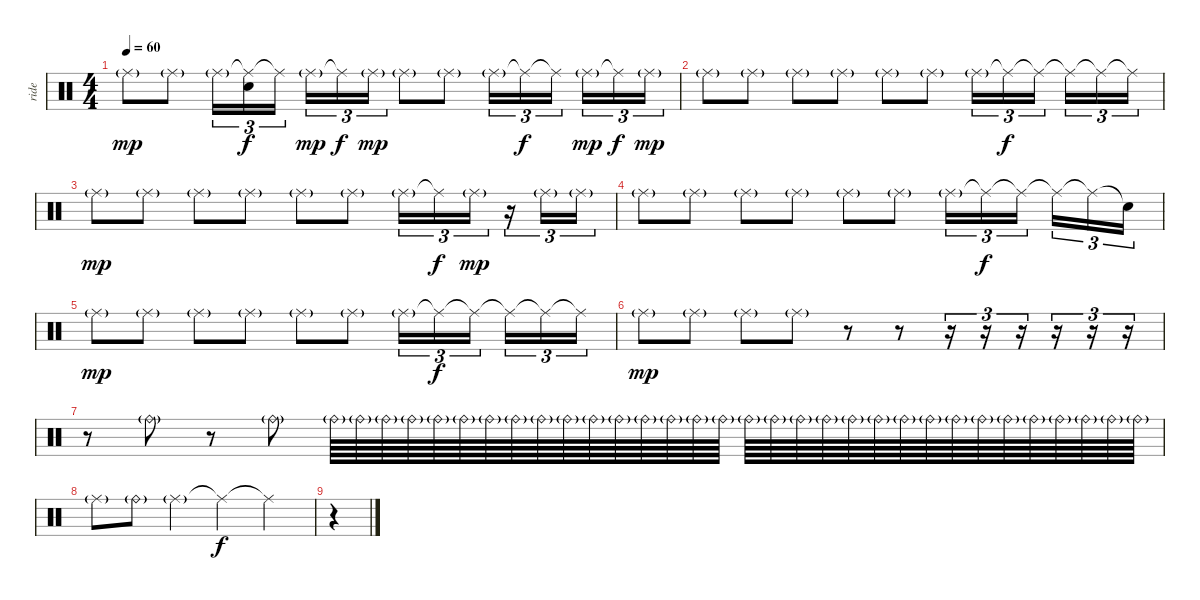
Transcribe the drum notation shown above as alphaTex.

\track ("ride" "ride") {instrument percussion}
\staff {score}
\articulation defaults
\ts (4 4)
\tempo 60
\clef neutral
\ks c "Ride (middle)"{g}.8{dy mp} "Ride (middle)"{g}.8 "Ride (middle)"{g}.16{tu (3 2)}
("Ride (middle)"{t} "Snare (hit)").16{tu (3 2) dy f} "Ride (middle)"{t}.16{tu (3 2)} "Ride (middle)"{g}.16{tu (3 2) dy mp} "Ride (middle)"{t}.16{tu (3 2) dy f} "Ride (middle)"{g}.16{tu (3 2) dy mp} "Ride (middle)"{g}.8 "Ride (middle)"{g}.8 "Ride (middle)"{g}.16{tu (3 2)} "Ride (middle)"{t}.16{tu (3 2) dy f} "Ride (middle)"{t}.16{tu (3 2)} "Ride (middle)"{g}.16{tu (3 2) dy mp} "Ride (middle)"{t}.16{tu (3 2) dy f} "Ride (middle)"{g}.16{tu (3 2) dy mp} |
"Ride (middle)"{g}.8 "Ride (middle)"{g}.8 "Ride (middle)"{g}.8 "Ride (middle)"{g}.8 "Ride (middle)"{g}.8 "Ride (middle)"{g}.8 "Ride (middle)"{g}.16{tu (3 2)} "Ride (middle)"{t}.16{tu (3 2) dy f} "Ride (middle)"{t}.16{tu (3 2)} "Ride (middle)"{t}.16{tu (3 2)} "Ride (middle)"{t}.16{tu (3 2)} "Ride (middle)"{t}.16{tu (3 2)} |
"Ride (middle)"{g}.8{dy mp} "Ride (middle)"{g}.8 "Ride (middle)"{g}.8 "Ride (middle)"{g}.8 "Ride (middle)"{g}.8 "Ride (middle)"{g}.8 "Ride (middle)"{g}.16{tu (3 2)} "Ride (middle)"{t}.16{tu (3 2) dy f} "Ride (middle)"{g}.16{tu (3 2) dy mp} r.16{tu (3 2)} "Ride (middle)"{g}.16{tu (3 2)} "Ride (middle)"{g}.16{tu (3 2)} |
"Ride (middle)"{g}.8 "Ride (middle)"{g}.8 "Ride (middle)"{g}.8 "Ride (middle)"{g}.8 "Ride (middle)"{g}.8 "Ride (middle)"{g}.8 "Ride (middle)"{g}.16{tu (3 2)} "Ride (middle)"{t}.16{tu (3 2) dy f} "Ride (middle)"{t}.16{tu (3 2)} "Ride (middle)"{t}.16{tu (3 2)} "Ride (middle)"{t}.16{tu (3 2)} "Snare (hit)"{t}.16{tu (3 2)} |
"Ride (middle)"{g}.8{dy mp} "Ride (middle)"{g}.8 "Ride (middle)"{g}.8 "Ride (middle)"{g}.8 "Ride (middle)"{g}.8 "Ride (middle)"{g}.8 "Ride (middle)"{g}.16{tu (3 2)} "Ride (middle)"{t}.16{tu (3 2) dy f} "Ride (middle)"{t}.16{tu (3 2)} "Ride (middle)"{t}.16{tu (3 2)} "Ride (middle)"{t}.16{tu (3 2)} "Ride (middle)"{t}.16{tu (3 2)} |
"Ride (middle)"{g}.8{dy mp} "Ride (middle)"{g}.8 "Ride (middle)"{g}.8 "Ride (middle)"{g}.8 r.8 r.8 r.16{tu (3 2)} r.16{tu (3 2)} r.16{tu (3 2)} r.16{tu (3 2)} r.16{tu (3 2)} r.16{tu (3 2)} |
r.8 "Ride (bell)"{g}.8 r.8 "Ride (bell)"{g}.8 "Ride (bell)"{g}.64 "Ride (bell)"{g}.64 "Ride (bell)"{g}.64 "Ride (bell)"{g}.64 "Ride (bell)"{g}.64 "Ride (bell)"{g}.64 "Ride (bell)"{g}.64 "Ride (bell)"{g}.64 "Ride (bell)"{g}.64 "Ride (bell)"{g}.64 "Ride (bell)"{g}.64 "Ride (bell)"{g}.64 "Ride (bell)"{g}.64 "Ride (bell)"{g}.64 "Ride (bell)"{g}.64 "Ride (bell)"{g}.64 "Ride (bell)"{g}.64 "Ride (bell)"{g}.64 "Ride (bell)"{g}.64 "Ride (bell)"{g}.64 "Ride (bell)"{g}.64 "Ride (bell)"{g}.64 "Ride (bell)"{g}.64 "Ride (bell)"{g}.64 "Ride (bell)"{g}.64 "Ride (bell)"{g}.64 "Ride (bell)"{g}.64 "Ride (bell)"{g}.64 "Ride (bell)"{g}.64 "Ride (bell)"{g}.64 "Ride (bell)"{g}.64 "Ride (bell)"{g}.64 |
"Ride (middle)"{g}.8 "Ride (bell)"{g}.8 "Ride (middle)"{g}.4 "Ride (middle)"{t}.4{dy f} "Ride (middle)"{t}.4 |
r.4
